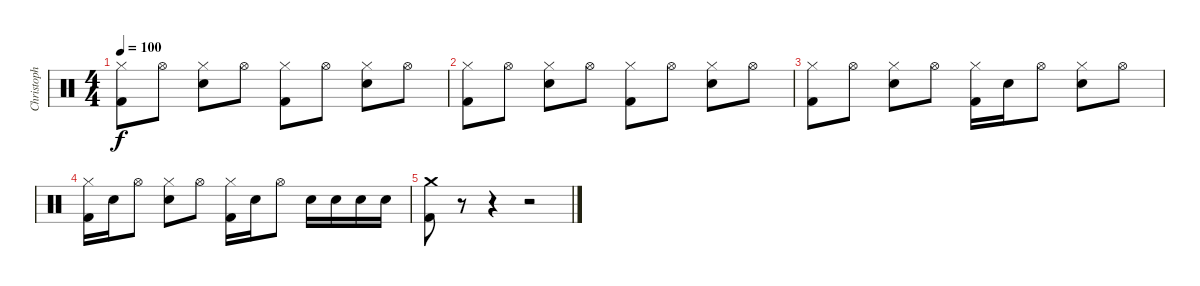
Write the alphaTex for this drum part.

\track ("Christoph - Drums" "Christoph ") {instrument percussion}
\staff {score}
\articulation defaults
\ts (4 4)
\tempo 100
\clef neutral
\ks c
("Hi-Hat (closed)" "Kick (hit) 2").8{dy f} "Hi-Hat (open)".8 ("Hi-Hat (closed)" "Snare (hit) 2").8 "Hi-Hat (open)".8 ("Hi-Hat (closed)" "Kick (hit) 2").8 "Hi-Hat (open)".8 ("Hi-Hat (closed)" "Snare (hit) 2").8 "Hi-Hat (open)".8 |
("Hi-Hat (closed)" "Kick (hit) 2").8 "Hi-Hat (open)".8 ("Hi-Hat (closed)" "Snare (hit) 2").8 "Hi-Hat (open)".8 ("Hi-Hat (closed)" "Kick (hit) 2").8 "Hi-Hat (open)".8 ("Hi-Hat (closed)" "Snare (hit) 2").8 "Hi-Hat (open)".8 |
("Hi-Hat (closed)" "Kick (hit) 2").8 "Hi-Hat (open)".8 ("Hi-Hat (closed)" "Snare (hit) 2").8 "Hi-Hat (open)".8 ("Hi-Hat (closed)" "Kick (hit) 2").16 "Snare (hit) 2".16 "Hi-Hat (open)".8 ("Hi-Hat (closed)" "Snare (hit) 2").8 "Hi-Hat (open)".8 |
("Hi-Hat (closed)" "Kick (hit) 2").16 "Snare (hit) 2".16 "Hi-Hat (open)".8 ("Hi-Hat (closed)" "Snare (hit) 2").8 "Hi-Hat (open)".8 ("Hi-Hat (closed)" "Kick (hit) 2").16 "Snare (hit) 2".16 "Hi-Hat (open)".8 "Snare (hit) 2".16 "Snare (hit) 2".16 "Snare (hit) 2".16 "Snare (hit) 2".16 |
("Crash medium (hit)" "Kick (hit) 2").8 r.8 r.4 r.2
